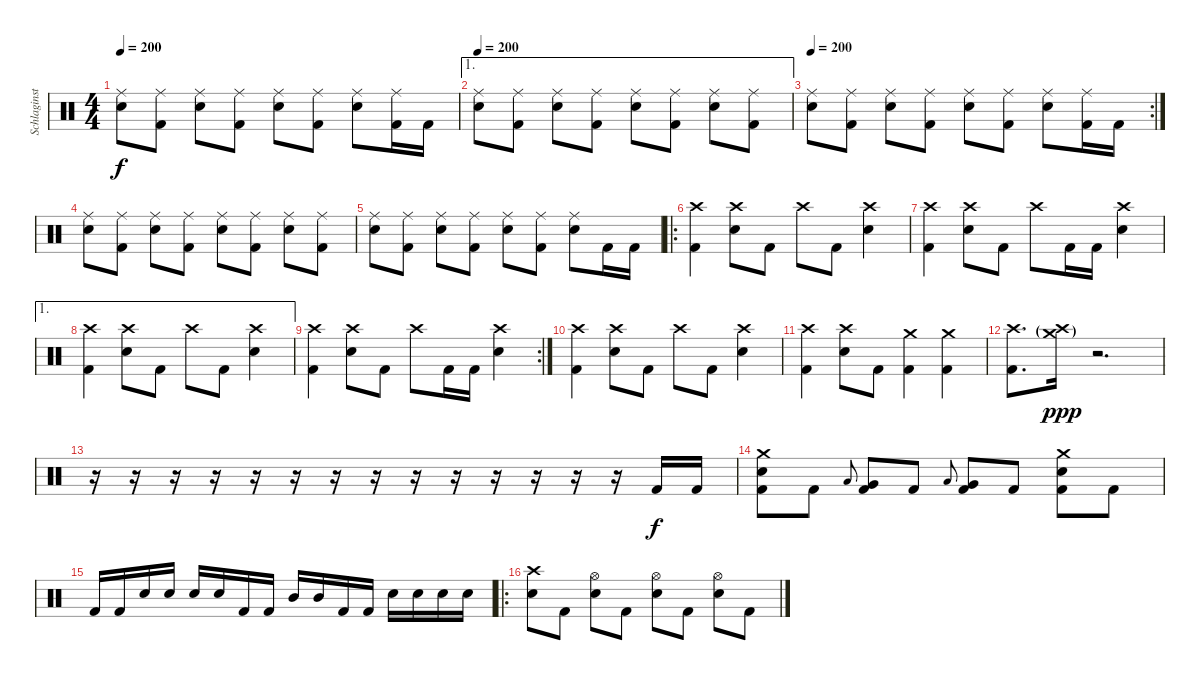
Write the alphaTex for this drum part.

\track ("Schlaginstrumente - Auswahl" "Schlaginst") {instrument percussion}
\staff {score}
\articulation defaults
\ts (4 4)
\tempo 200
\clef neutral
\ks c
("Ride (middle)" "Electric Snare (hit)").8{dy f} ("Ride (middle)" "Kick (hit) 2").8 ("Ride (middle)" "Electric Snare (hit)").8 ("Ride (middle)" "Kick (hit) 2").8 ("Ride (middle)" "Electric Snare (hit)").8 ("Ride (middle)" "Kick (hit) 2").8 ("Ride (middle)" "Electric Snare (hit)").8 ("Ride (middle)" "Kick (hit) 2").16 "Kick (hit) 2".16 |
\ae 1
\tempo 200
("Ride (middle)" "Electric Snare (hit)").8 ("Ride (middle)" "Kick (hit) 2").8 ("Ride (middle)" "Electric Snare (hit)").8 ("Ride (middle)" "Kick (hit) 2").8 ("Ride (middle)" "Electric Snare (hit)").8 ("Ride (middle)" "Kick (hit) 2").8 ("Ride (middle)" "Electric Snare (hit)").8 ("Ride (middle)" "Kick (hit) 2").8 |
\rc 2
\tempo 200
("Ride (middle)" "Electric Snare (hit)").8 ("Ride (middle)" "Kick (hit) 2").8 ("Ride (middle)" "Electric Snare (hit)").8 ("Ride (middle)" "Kick (hit) 2").8 ("Ride (middle)" "Electric Snare (hit)").8 ("Ride (middle)" "Kick (hit) 2").8 ("Ride (middle)" "Electric Snare (hit)").8 ("Ride (middle)" "Kick (hit) 2").16 "Kick (hit) 2".16 |
("Ride (middle)" "Electric Snare (hit)").8 ("Ride (middle)" "Kick (hit) 2").8 ("Ride (middle)" "Electric Snare (hit)").8 ("Ride (middle)" "Kick (hit) 2").8 ("Ride (middle)" "Electric Snare (hit)").8 ("Ride (middle)" "Kick (hit) 2").8 ("Ride (middle)" "Electric Snare (hit)").8 ("Ride (middle)" "Kick (hit) 2").8 |
("Ride (middle)" "Electric Snare (hit)").8 ("Ride (middle)" "Kick (hit) 2").8 ("Ride (middle)" "Electric Snare (hit)").8 ("Ride (middle)" "Kick (hit) 2").8 ("Ride (middle)" "Electric Snare (hit)").8 ("Ride (middle)" "Kick (hit) 2").8 ("Ride (middle)" "Electric Snare (hit)").8 "Kick (hit) 2".16 "Kick (hit) 2".16 |
\ro
("Crash high (hit)" "Kick (hit) 2").4 ("Crash high (hit)" "Electric Snare (hit)").8 "Kick (hit) 2".8 "Crash high (hit)".8 "Kick (hit) 2".8 ("Crash high (hit)" "Electric Snare (hit)").4 |
("Crash high (hit)" "Kick (hit) 2").4 ("Crash high (hit)" "Electric Snare (hit)").8 "Kick (hit) 2".8 "Crash high (hit)".8 "Kick (hit) 2".16 "Kick (hit) 2".16 ("Crash high (hit)" "Electric Snare (hit)").4 |
\ae 1
("Crash high (hit)" "Kick (hit) 2").4 ("Crash high (hit)" "Electric Snare (hit)").8 "Kick (hit) 2".8 "Crash high (hit)".8 "Kick (hit) 2".8 ("Crash high (hit)" "Electric Snare (hit)").4 |
\rc 2
("Crash high (hit)" "Kick (hit) 2").4 ("Crash high (hit)" "Electric Snare (hit)").8 "Kick (hit) 2".8 "Crash high (hit)".8 "Kick (hit) 2".16 "Kick (hit) 2".16 ("Crash high (hit)" "Electric Snare (hit)").4 |
("Crash high (hit)" "Kick (hit) 2").4 ("Crash high (hit)" "Electric Snare (hit)").8 "Kick (hit) 2".8 "Crash high (hit)".8 "Kick (hit) 2".8 ("Crash high (hit)" "Electric Snare (hit)").4 |
("Crash high (hit)" "Kick (hit) 2").4 ("Crash high (hit)" "Electric Snare (hit)").8 "Kick (hit) 2".8 ("Crash medium (hit)" "Kick (hit) 2").4 ("Crash medium (hit)" "Kick (hit) 2").4 |
("Crash high (hit)" "Kick (hit) 2").8{d} ("Crash high (hit)"{g} "Crash medium (hit)"{g}).16{dy ppp} r.2{d} |
r.16 r.16 r.16 r.16 r.16 r.16 r.16 r.16 r.16 r.16 r.16 r.16 r.16 r.16 "Kick (hit) 2".16{dy f} "Kick (hit) 2".16 |
("Crash medium (hit)" "Electric Snare (hit)" "Kick (hit) 2").8 "Kick (hit) 2".8 "Low Tom (hit)".8{gr onbeat} ("Very Low Tom (hit)" "Kick (hit) 2").8 "Kick (hit) 2".8 "Low Tom (hit)".8{gr onbeat} ("Very Low Tom (hit)" "Kick (hit) 2").8 "Kick (hit) 2".8 ("Crash medium (hit)" "Electric Snare (hit)" "Kick (hit) 2").8 "Kick (hit) 2".8 |
"Kick (hit) 2".16 "Kick (hit) 2".16 "Electric Snare (hit)".16 "Electric Snare (hit)".16 "Electric Snare (hit)".16 "Electric Snare (hit)".16 "Kick (hit) 2".16 "Kick (hit) 2".16 "Mid Tom (hit)".16 "Mid Tom (hit)".16 "Kick (hit) 2".16 "Kick (hit) 2".16 "Electric Snare (hit)".16 "Electric Snare (hit)".16 "Electric Snare (hit)".16 "Electric Snare (hit)".16 |
\ro
("Crash high (hit)" "Electric Snare (hit)").8 "Kick (hit) 2".8 ("Hi-Hat (open)" "Electric Snare (hit)").8 "Kick (hit) 2".8 ("Hi-Hat (open)" "Electric Snare (hit)").8 "Kick (hit) 2".8 ("Hi-Hat (open)" "Electric Snare (hit)").8 "Kick (hit) 2".8
